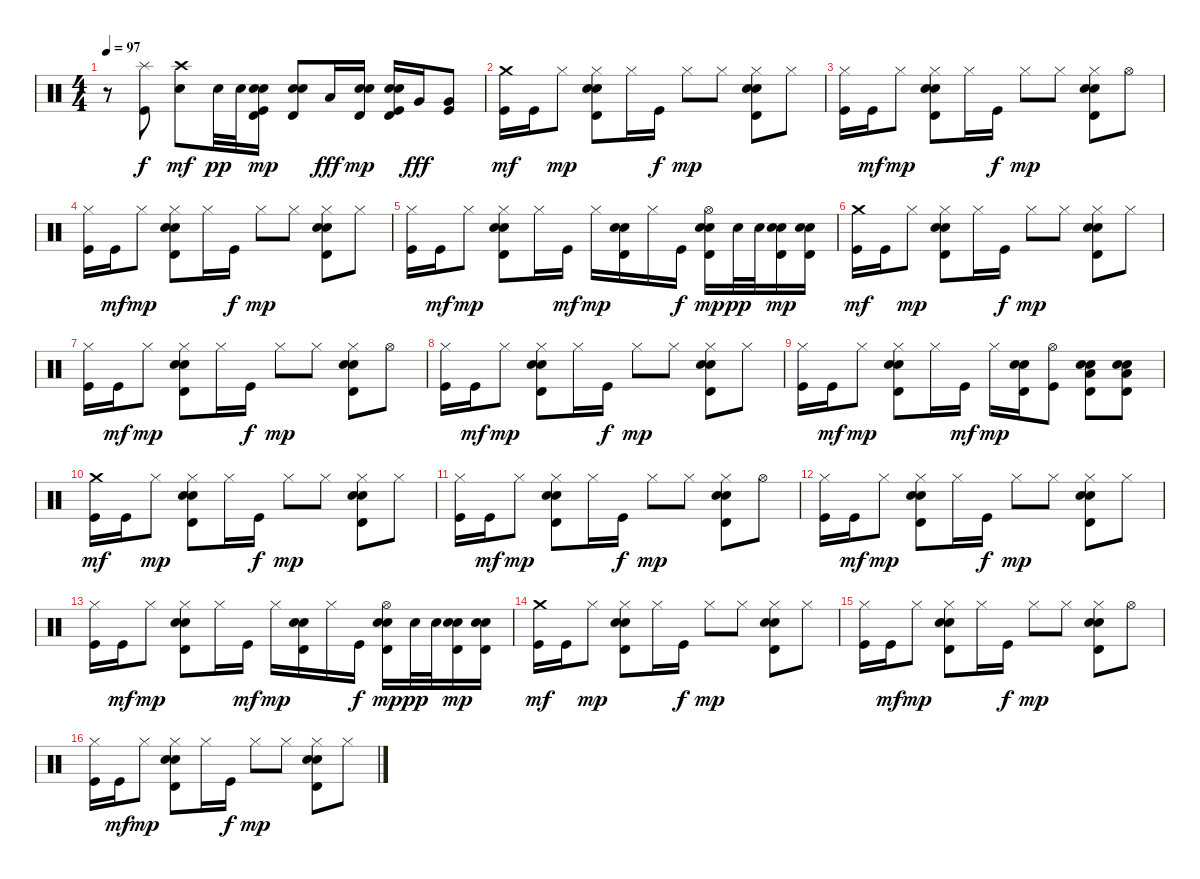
\track "" {instrument percussion}
\staff {score}
\articulation defaults
\ts (4 4)
\tempo 97
\clef neutral
\ks c
r.8{dy ff} ("Kick (hit)" "Splash (hit)").8{dy f} ("Electric Snare (hit)" "Crash high (hit)").8{dy mf} "Snare (hit) 2".32{dy pp} "Snare (hit) 2".32 ("Kick (hit)" "Snare (hit) 2" "Electric Snare (hit)" "Timbale high (hit)").16{dy mp} ("Snare (hit) 2" "Electric Snare (hit)" "Timbale high (hit)").8 "Low Tom (hit)".16{dy fff} ("Snare (hit) 2" "Electric Snare (hit)" "Timbale high (hit)").16{dy mp} ("Kick (hit)" "Snare (hit) 2" "Electric Snare (hit)" "Timbale high (hit)").16 "Very Low Tom (hit)".16{dy fff} ("Kick (hit)" "Very Low Tom (hit)").8 |
\section ("" "")
("Kick (hit)" "Crash medium (hit)").16{dy mf} "Kick (hit)".16 "Hi-Hat (closed)".8{dy mp} ("Snare (hit) 2" "Electric Snare (hit)" "Timbale high (hit)" "Hi-Hat (closed)").8 "Hi-Hat (closed)".16 "Kick (hit)".16{dy f} "Hi-Hat (closed)".8{dy mp} "Hi-Hat (closed)".8 ("Snare (hit) 2" "Electric Snare (hit)" "Timbale high (hit)" "Hi-Hat (closed)").8 "Hi-Hat (closed)".8 |
("Kick (hit)" "Hi-Hat (closed)").16 "Kick (hit)".16{dy mf} "Hi-Hat (closed)".8{dy mp} ("Snare (hit) 2" "Electric Snare (hit)" "Timbale high (hit)" "Hi-Hat (closed)").8 "Hi-Hat (closed)".16 "Kick (hit)".16{dy f} "Hi-Hat (closed)".8{dy mp} "Hi-Hat (closed)".8 ("Snare (hit) 2" "Electric Snare (hit)" "Timbale high (hit)" "Hi-Hat (closed)").8 "Hi-Hat (open)".8 |
("Kick (hit)" "Hi-Hat (closed)").16 "Kick (hit)".16{dy mf} "Hi-Hat (closed)".8{dy mp} ("Snare (hit) 2" "Electric Snare (hit)" "Timbale high (hit)" "Hi-Hat (closed)").8 "Hi-Hat (closed)".16 "Kick (hit)".16{dy f} "Hi-Hat (closed)".8{dy mp} "Hi-Hat (closed)".8 ("Snare (hit) 2" "Electric Snare (hit)" "Timbale high (hit)" "Hi-Hat (closed)").8 "Hi-Hat (closed)".8 |
("Kick (hit)" "Hi-Hat (closed)").16 "Kick (hit)".16{dy mf} "Hi-Hat (closed)".8{dy mp} ("Snare (hit) 2" "Electric Snare (hit)" "Timbale high (hit)" "Hi-Hat (closed)").8 "Hi-Hat (closed)".16 "Kick (hit)".16{dy mf} "Hi-Hat (closed)".16{dy mp} ("Snare (hit) 2" "Electric Snare (hit)" "Timbale high (hit)").16 "Hi-Hat (closed)".16 "Kick (hit)".16{dy f} ("Snare (hit) 2" "Electric Snare (hit)" "Timbale high (hit)" "Hi-Hat (open)").16{dy mp} "Snare (hit) 2".32{dy pp} "Snare (hit) 2".32 ("Snare (hit) 2" "Electric Snare (hit)" "Timbale high (hit)").16{dy mp} ("Snare (hit) 2" "Electric Snare (hit)" "Timbale high (hit)").16 |
\section ("" "")
("Kick (hit)" "Crash medium (hit)").16{dy mf} "Kick (hit)".16 "Hi-Hat (closed)".8{dy mp} ("Snare (hit) 2" "Electric Snare (hit)" "Timbale high (hit)" "Hi-Hat (closed)").8 "Hi-Hat (closed)".16 "Kick (hit)".16{dy f} "Hi-Hat (closed)".8{dy mp} "Hi-Hat (closed)".8 ("Snare (hit) 2" "Electric Snare (hit)" "Timbale high (hit)" "Hi-Hat (closed)").8 "Hi-Hat (closed)".8 |
("Kick (hit)" "Hi-Hat (closed)").16 "Kick (hit)".16{dy mf} "Hi-Hat (closed)".8{dy mp} ("Snare (hit) 2" "Electric Snare (hit)" "Timbale high (hit)" "Hi-Hat (closed)").8 "Hi-Hat (closed)".16 "Kick (hit)".16{dy f} "Hi-Hat (closed)".8{dy mp} "Hi-Hat (closed)".8 ("Snare (hit) 2" "Electric Snare (hit)" "Timbale high (hit)" "Hi-Hat (closed)").8 "Hi-Hat (open)".8 |
("Kick (hit)" "Hi-Hat (closed)").16 "Kick (hit)".16{dy mf} "Hi-Hat (closed)".8{dy mp} ("Snare (hit) 2" "Electric Snare (hit)" "Timbale high (hit)" "Hi-Hat (closed)").8 "Hi-Hat (closed)".16 "Kick (hit)".16{dy f} "Hi-Hat (closed)".8{dy mp} "Hi-Hat (closed)".8 ("Snare (hit) 2" "Electric Snare (hit)" "Timbale high (hit)" "Hi-Hat (closed)").8 "Hi-Hat (closed)".8 |
("Kick (hit)" "Hi-Hat (closed)").16 "Kick (hit)".16{dy mf} "Hi-Hat (closed)".8{dy mp} ("Snare (hit) 2" "Electric Snare (hit)" "Timbale high (hit)" "Hi-Hat (closed)").8 "Hi-Hat (closed)".16 "Kick (hit)".16{dy mf} "Hi-Hat (closed)".16{dy mp} ("Snare (hit) 2" "Electric Snare (hit)" "Timbale high (hit)").16 ("Kick (hit)" "Hi-Hat (open)").8 ("Low Tom (hit)" "Snare (hit) 2" "Electric Snare (hit)" "Timbale high (hit)").8 ("Low Tom (hit)" "Snare (hit) 2" "Electric Snare (hit)" "Timbale high (hit)").8 |
\section ("" "")
("Kick (hit)" "Crash medium (hit)").16{dy mf} "Kick (hit)".16 "Hi-Hat (closed)".8{dy mp} ("Snare (hit) 2" "Electric Snare (hit)" "Timbale high (hit)" "Hi-Hat (closed)").8 "Hi-Hat (closed)".16 "Kick (hit)".16{dy f} "Hi-Hat (closed)".8{dy mp} "Hi-Hat (closed)".8 ("Snare (hit) 2" "Electric Snare (hit)" "Timbale high (hit)" "Hi-Hat (closed)").8 "Hi-Hat (closed)".8 |
("Kick (hit)" "Hi-Hat (closed)").16 "Kick (hit)".16{dy mf} "Hi-Hat (closed)".8{dy mp} ("Snare (hit) 2" "Electric Snare (hit)" "Timbale high (hit)" "Hi-Hat (closed)").8 "Hi-Hat (closed)".16 "Kick (hit)".16{dy f} "Hi-Hat (closed)".8{dy mp} "Hi-Hat (closed)".8 ("Snare (hit) 2" "Electric Snare (hit)" "Timbale high (hit)" "Hi-Hat (closed)").8 "Hi-Hat (open)".8 |
("Kick (hit)" "Hi-Hat (closed)").16 "Kick (hit)".16{dy mf} "Hi-Hat (closed)".8{dy mp} ("Snare (hit) 2" "Electric Snare (hit)" "Timbale high (hit)" "Hi-Hat (closed)").8 "Hi-Hat (closed)".16 "Kick (hit)".16{dy f} "Hi-Hat (closed)".8{dy mp} "Hi-Hat (closed)".8 ("Snare (hit) 2" "Electric Snare (hit)" "Timbale high (hit)" "Hi-Hat (closed)").8 "Hi-Hat (closed)".8 |
("Kick (hit)" "Hi-Hat (closed)").16 "Kick (hit)".16{dy mf} "Hi-Hat (closed)".8{dy mp} ("Snare (hit) 2" "Electric Snare (hit)" "Timbale high (hit)" "Hi-Hat (closed)").8 "Hi-Hat (closed)".16 "Kick (hit)".16{dy mf} "Hi-Hat (closed)".16{dy mp} ("Snare (hit) 2" "Electric Snare (hit)" "Timbale high (hit)").16 "Hi-Hat (closed)".16 "Kick (hit)".16{dy f} ("Snare (hit) 2" "Electric Snare (hit)" "Timbale high (hit)" "Hi-Hat (open)").16{dy mp} "Snare (hit) 2".32{dy pp} "Snare (hit) 2".32 ("Snare (hit) 2" "Electric Snare (hit)" "Timbale high (hit)").16{dy mp} ("Snare (hit) 2" "Electric Snare (hit)" "Timbale high (hit)").16 |
\section ("" "")
("Kick (hit)" "Crash medium (hit)").16{dy mf} "Kick (hit)".16 "Hi-Hat (closed)".8{dy mp} ("Snare (hit) 2" "Electric Snare (hit)" "Timbale high (hit)" "Hi-Hat (closed)").8 "Hi-Hat (closed)".16 "Kick (hit)".16{dy f} "Hi-Hat (closed)".8{dy mp} "Hi-Hat (closed)".8 ("Snare (hit) 2" "Electric Snare (hit)" "Timbale high (hit)" "Hi-Hat (closed)").8 "Hi-Hat (closed)".8 |
("Kick (hit)" "Hi-Hat (closed)").16 "Kick (hit)".16{dy mf} "Hi-Hat (closed)".8{dy mp} ("Snare (hit) 2" "Electric Snare (hit)" "Timbale high (hit)" "Hi-Hat (closed)").8 "Hi-Hat (closed)".16 "Kick (hit)".16{dy f} "Hi-Hat (closed)".8{dy mp} "Hi-Hat (closed)".8 ("Snare (hit) 2" "Electric Snare (hit)" "Timbale high (hit)" "Hi-Hat (closed)").8 "Hi-Hat (open)".8 |
("Kick (hit)" "Hi-Hat (closed)").16 "Kick (hit)".16{dy mf} "Hi-Hat (closed)".8{dy mp} ("Snare (hit) 2" "Electric Snare (hit)" "Timbale high (hit)" "Hi-Hat (closed)").8 "Hi-Hat (closed)".16 "Kick (hit)".16{dy f} "Hi-Hat (closed)".8{dy mp} "Hi-Hat (closed)".8 ("Snare (hit) 2" "Electric Snare (hit)" "Timbale high (hit)" "Hi-Hat (closed)").8 "Hi-Hat (closed)".8
